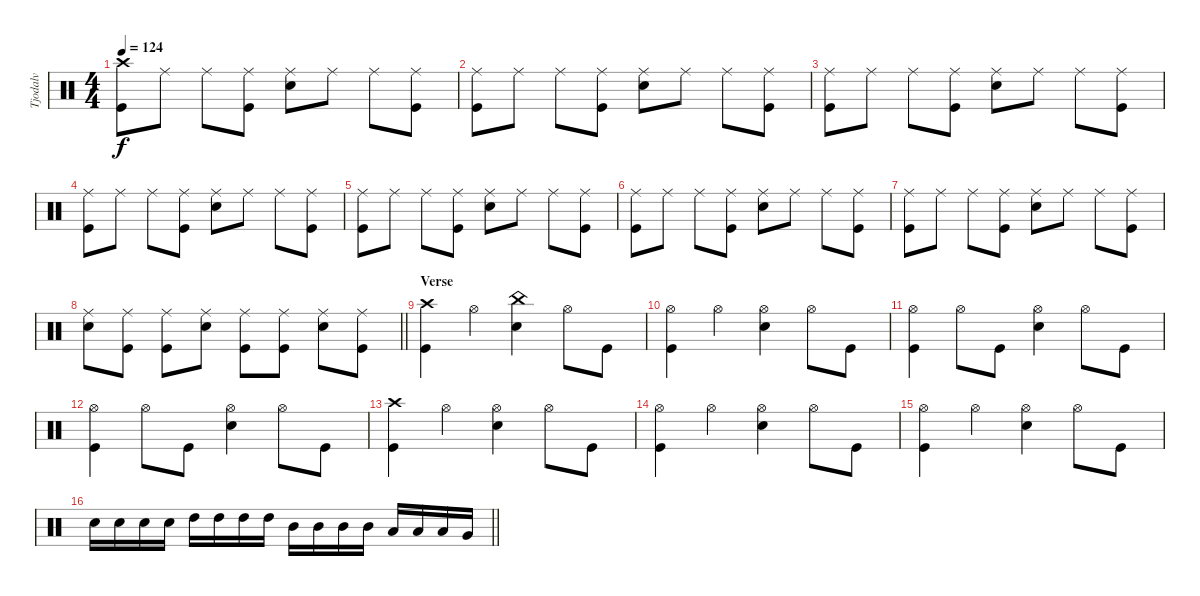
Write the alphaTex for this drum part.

\track ("Tjodalv" "Tjodalv") {instrument percussion}
\staff {score}
\articulation defaults
\ts (4 4)
\tempo 124
\clef neutral
\ks c
("Crash high (hit)" "Kick (hit)").8{dy f} "Ride (middle)".8 "Ride (middle)".8 ("Kick (hit)" "Ride (middle)").8 ("Ride (middle)" "Snare (hit) 2").8 "Ride (middle)".8 "Ride (middle)".8 ("Kick (hit)" "Ride (middle)").8 |
("Kick (hit)" "Ride (middle)").8 "Ride (middle)".8 "Ride (middle)".8 ("Kick (hit)" "Ride (middle)").8 ("Ride (middle)" "Snare (hit) 2").8 "Ride (middle)".8 "Ride (middle)".8 ("Kick (hit)" "Ride (middle)").8 |
("Kick (hit)" "Ride (middle)").8 "Ride (middle)".8 "Ride (middle)".8 ("Kick (hit)" "Ride (middle)").8 ("Ride (middle)" "Snare (hit) 2").8 "Ride (middle)".8 "Ride (middle)".8 ("Kick (hit)" "Ride (middle)").8 |
("Kick (hit)" "Ride (middle)").8 "Ride (middle)".8 "Ride (middle)".8 ("Kick (hit)" "Ride (middle)").8 ("Ride (middle)" "Snare (hit) 2").8 "Ride (middle)".8 "Ride (middle)".8 ("Kick (hit)" "Ride (middle)").8 |
("Kick (hit)" "Ride (middle)").8 "Ride (middle)".8 "Ride (middle)".8 ("Kick (hit)" "Ride (middle)").8 ("Ride (middle)" "Snare (hit) 2").8 "Ride (middle)".8 "Ride (middle)".8 ("Kick (hit)" "Ride (middle)").8 |
("Kick (hit)" "Ride (middle)").8 "Ride (middle)".8 "Ride (middle)".8 ("Kick (hit)" "Ride (middle)").8 ("Ride (middle)" "Snare (hit) 2").8 "Ride (middle)".8 "Ride (middle)".8 ("Kick (hit)" "Ride (middle)").8 |
("Kick (hit)" "Ride (middle)").8 "Ride (middle)".8 "Ride (middle)".8 ("Kick (hit)" "Ride (middle)").8 ("Ride (middle)" "Snare (hit) 2").8 "Ride (middle)".8 "Ride (middle)".8 ("Kick (hit)" "Ride (middle)").8 |
\barLineRight lightlight
("Ride (middle)" "Snare (hit) 2").8 ("Kick (hit)" "Ride (middle)").8 ("Kick (hit)" "Ride (middle)").8 ("Ride (middle)" "Snare (hit) 2").8 ("Kick (hit)" "Ride (middle)").8 ("Kick (hit)" "Ride (middle)").8 ("Ride (middle)" "Snare (hit) 2").8 ("Kick (hit)" "Ride (middle)").8 |
\section ("" "Verse")
("Crash high (hit)" "Kick (hit)").4 "Hi-Hat (open)".4 ("China (hit)" "Snare (hit) 2").4 "Hi-Hat (open)".8 "Kick (hit)".8 |
("Kick (hit)" "Hi-Hat (open)").4 "Hi-Hat (open)".4 ("Hi-Hat (open)" "Snare (hit) 2").4 "Hi-Hat (open)".8 "Kick (hit)".8 |
("Kick (hit)" "Hi-Hat (open)").4 "Hi-Hat (open)".8 "Kick (hit)".8 ("Hi-Hat (open)" "Snare (hit) 2").4 "Hi-Hat (open)".8 "Kick (hit)".8 |
("Kick (hit)" "Hi-Hat (open)").4 "Hi-Hat (open)".8 "Kick (hit)".8 ("Hi-Hat (open)" "Snare (hit) 2").4 "Hi-Hat (open)".8 "Kick (hit)".8 |
("Crash high (hit)" "Kick (hit)").4 "Hi-Hat (open)".4 ("Hi-Hat (open)" "Snare (hit) 2").4 "Hi-Hat (open)".8 "Kick (hit)".8 |
("Kick (hit)" "Hi-Hat (open)").4 "Hi-Hat (open)".4 ("Hi-Hat (open)" "Snare (hit) 2").4 "Hi-Hat (open)".8 "Kick (hit)".8 |
("Kick (hit)" "Hi-Hat (open)").4 "Hi-Hat (open)".4 ("Hi-Hat (open)" "Snare (hit) 2").4 "Hi-Hat (open)".8 "Kick (hit)".8 |
\barLineRight lightlight "Snare (hit) 2".16 "Snare (hit) 2".16 "Snare (hit) 2".16 "Snare (hit) 2".16 "High Tom (hit)".16 "High Tom (hit)".16 "High Tom (hit)".16 "High Tom (hit)".16 "Mid Tom (hit)".16 "Mid Tom (hit)".16 "Mid Tom (hit)".16 "Mid Tom (hit)".16 "Low Tom (hit)".16 "Low Tom (hit)".16 "Low Tom (hit)".16 "Very Low Tom (hit)".16
